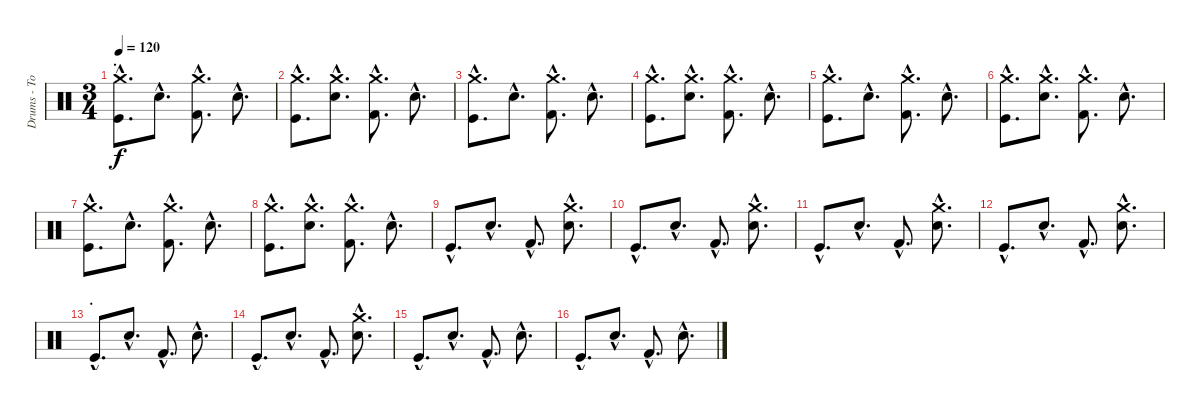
\track ("Drums - Tom" "Drums - To") {instrument percussion}
\staff {score}
\articulation defaults
\ts (3 4)
\section ("" ".")
\tempo 120
\clef neutral
\ks c
("Kick (hit)"{hac} "Crash medium (hit)"{hac}).8{d dy f} "Snare (hit) 2"{hac}.8{d} ("Kick (hit) 2"{hac} "Crash medium (hit)"{hac}).8{d} "Snare (hit) 2"{hac}.8{d} |
("Kick (hit)"{hac} "Crash medium (hit)"{hac}).8{d} ("Snare (hit) 2"{hac} "Crash medium (hit)"{hac}).8{d} ("Kick (hit) 2"{hac} "Crash medium (hit)"{hac}).8{d} "Snare (hit) 2"{hac}.8{d} |
("Kick (hit)"{hac} "Crash medium (hit)"{hac}).8{d} "Snare (hit) 2"{hac}.8{d} ("Kick (hit) 2"{hac} "Crash medium (hit)"{hac}).8{d} "Snare (hit) 2"{hac}.8{d} |
("Kick (hit)"{hac} "Crash medium (hit)"{hac}).8{d} ("Snare (hit) 2"{hac} "Crash medium (hit)"{hac}).8{d} ("Kick (hit) 2"{hac} "Crash medium (hit)"{hac}).8{d} "Snare (hit) 2"{hac}.8{d} |
("Kick (hit)"{hac} "Crash medium (hit)"{hac}).8{d} "Snare (hit) 2"{hac}.8{d} ("Kick (hit) 2"{hac} "Crash medium (hit)"{hac}).8{d} "Snare (hit) 2"{hac}.8{d} |
("Kick (hit)"{hac} "Crash medium (hit)"{hac}).8{d} ("Snare (hit) 2"{hac} "Crash medium (hit)"{hac}).8{d} ("Kick (hit) 2"{hac} "Crash medium (hit)"{hac}).8{d} "Snare (hit) 2"{hac}.8{d} |
("Kick (hit)"{hac} "Crash medium (hit)"{hac}).8{d} "Snare (hit) 2"{hac}.8{d} ("Kick (hit) 2"{hac} "Crash medium (hit)"{hac}).8{d} "Snare (hit) 2"{hac}.8{d} |
("Kick (hit)"{hac} "Crash medium (hit)"{hac}).8{d} ("Snare (hit) 2"{hac} "Crash medium (hit)"{hac}).8{d} ("Kick (hit) 2"{hac} "Crash medium (hit)"{hac}).8{d} "Snare (hit) 2"{hac}.8{d} |
"Kick (hit)"{hac}.8{d} "Snare (hit) 2"{hac}.8{d} "Kick (hit) 2"{hac}.8{d} ("Snare (hit) 2"{hac} "Crash medium (hit)"{hac}).8{d} |
"Kick (hit)"{hac}.8{d} "Snare (hit) 2"{hac}.8{d} "Kick (hit) 2"{hac}.8{d} ("Snare (hit) 2"{hac} "Crash medium (hit)"{hac}).8{d} |
"Kick (hit)"{hac}.8{d} "Snare (hit) 2"{hac}.8{d} "Kick (hit) 2"{hac}.8{d} ("Snare (hit) 2"{hac} "Crash medium (hit)"{hac}).8{d} |
"Kick (hit)"{hac}.8{d} "Snare (hit) 2"{hac}.8{d} "Kick (hit) 2"{hac}.8{d} ("Snare (hit) 2"{hac} "Crash medium (hit)"{hac}).8{d} |
\section ("" ".")
"Kick (hit)"{hac}.8{d} "Snare (hit) 2"{hac}.8{d} "Kick (hit) 2"{hac}.8{d} "Snare (hit) 2"{hac}.8{d} |
"Kick (hit)"{hac}.8{d} "Snare (hit) 2"{hac}.8{d} "Kick (hit) 2"{hac}.8{d} ("Snare (hit) 2"{hac} "Crash medium (hit)"{hac}).8{d} |
"Kick (hit)"{hac}.8{d} "Snare (hit) 2"{hac}.8{d} "Kick (hit) 2"{hac}.8{d} "Snare (hit) 2"{hac}.8{d} |
"Kick (hit)"{hac}.8{d} "Snare (hit) 2"{hac}.8{d} "Kick (hit) 2"{hac}.8{d} "Snare (hit) 2"{hac}.8{d}
